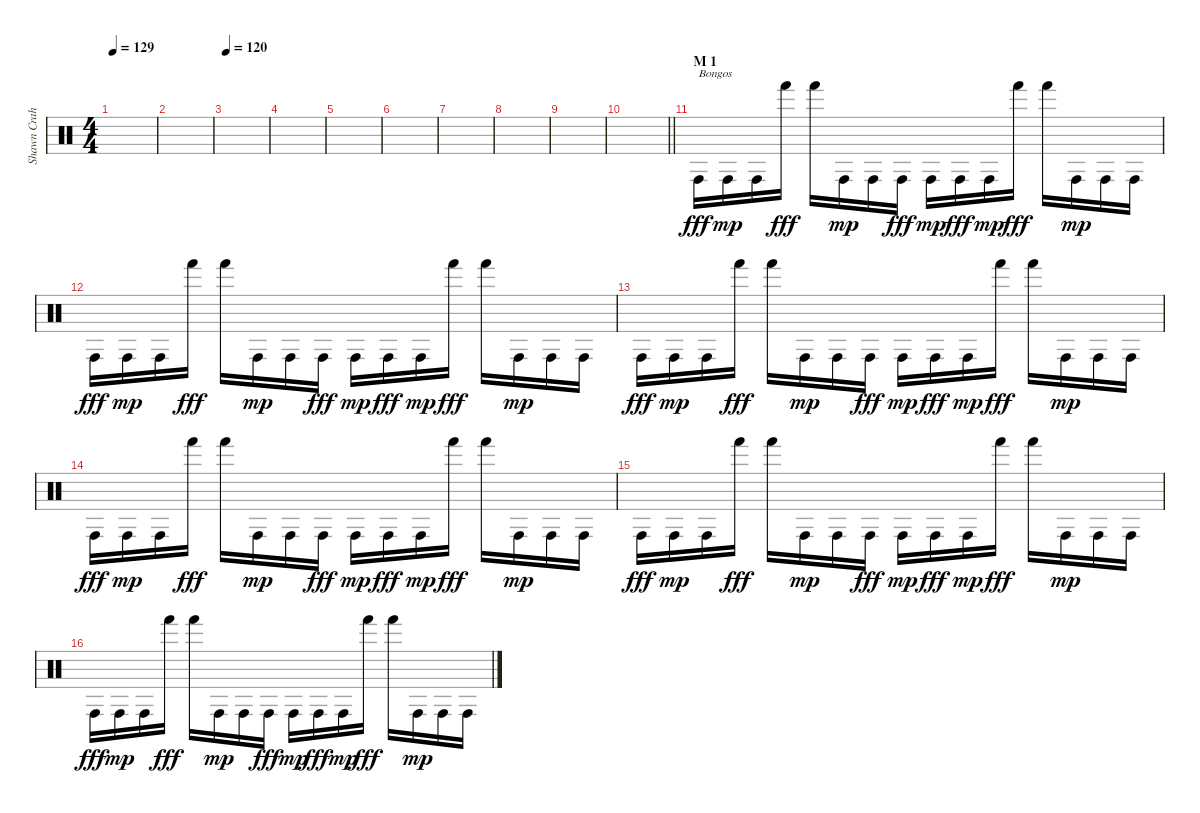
\track ("Shawn Crahan" "Shawn Crah") {instrument percussion}
\staff {score}
\articulation defaults
\ts (4 4)
\tempo 129
\clef neutral
\ks c
|
|
\tempo 120
|
|
|
|
|
|
|
\barLineRight lightlight
|
\section ("" "M 1")
"Conga high (hit)".16{txt "Bongos" dy fff} "Conga high (hit)".16{dy mp} "Conga high (hit)".16 "Hand (hit)".16{dy fff} "Hand (hit)".16 "Conga high (hit)".16{dy mp} "Conga high (hit)".16 "Conga high (hit)".16{dy fff} "Conga high (hit)".16{dy mp} "Conga high (hit)".16{dy fff} "Conga high (hit)".16{dy mp} "Hand (hit)".16{dy fff} "Hand (hit)".16 "Conga high (hit)".16{dy mp} "Conga high (hit)".16 "Conga high (hit)".16 |
"Conga high (hit)".16{dy fff} "Conga high (hit)".16{dy mp} "Conga high (hit)".16 "Hand (hit)".16{dy fff} "Hand (hit)".16 "Conga high (hit)".16{dy mp} "Conga high (hit)".16 "Conga high (hit)".16{dy fff} "Conga high (hit)".16{dy mp} "Conga high (hit)".16{dy fff} "Conga high (hit)".16{dy mp} "Hand (hit)".16{dy fff} "Hand (hit)".16 "Conga high (hit)".16{dy mp} "Conga high (hit)".16 "Conga high (hit)".16 |
"Conga high (hit)".16{dy fff} "Conga high (hit)".16{dy mp} "Conga high (hit)".16 "Hand (hit)".16{dy fff} "Hand (hit)".16 "Conga high (hit)".16{dy mp} "Conga high (hit)".16 "Conga high (hit)".16{dy fff} "Conga high (hit)".16{dy mp} "Conga high (hit)".16{dy fff} "Conga high (hit)".16{dy mp} "Hand (hit)".16{dy fff} "Hand (hit)".16 "Conga high (hit)".16{dy mp} "Conga high (hit)".16 "Conga high (hit)".16 |
"Conga high (hit)".16{dy fff} "Conga high (hit)".16{dy mp} "Conga high (hit)".16 "Hand (hit)".16{dy fff} "Hand (hit)".16 "Conga high (hit)".16{dy mp} "Conga high (hit)".16 "Conga high (hit)".16{dy fff} "Conga high (hit)".16{dy mp} "Conga high (hit)".16{dy fff} "Conga high (hit)".16{dy mp} "Hand (hit)".16{dy fff} "Hand (hit)".16 "Conga high (hit)".16{dy mp} "Conga high (hit)".16 "Conga high (hit)".16 |
"Conga high (hit)".16{dy fff} "Conga high (hit)".16{dy mp} "Conga high (hit)".16 "Hand (hit)".16{dy fff} "Hand (hit)".16 "Conga high (hit)".16{dy mp} "Conga high (hit)".16 "Conga high (hit)".16{dy fff} "Conga high (hit)".16{dy mp} "Conga high (hit)".16{dy fff} "Conga high (hit)".16{dy mp} "Hand (hit)".16{dy fff} "Hand (hit)".16 "Conga high (hit)".16{dy mp} "Conga high (hit)".16 "Conga high (hit)".16 |
"Conga high (hit)".16{dy fff} "Conga high (hit)".16{dy mp} "Conga high (hit)".16 "Hand (hit)".16{dy fff} "Hand (hit)".16 "Conga high (hit)".16{dy mp} "Conga high (hit)".16 "Conga high (hit)".16{dy fff} "Conga high (hit)".16{dy mp} "Conga high (hit)".16{dy fff} "Conga high (hit)".16{dy mp} "Hand (hit)".16{dy fff} "Hand (hit)".16 "Conga high (hit)".16{dy mp} "Conga high (hit)".16 "Conga high (hit)".16
